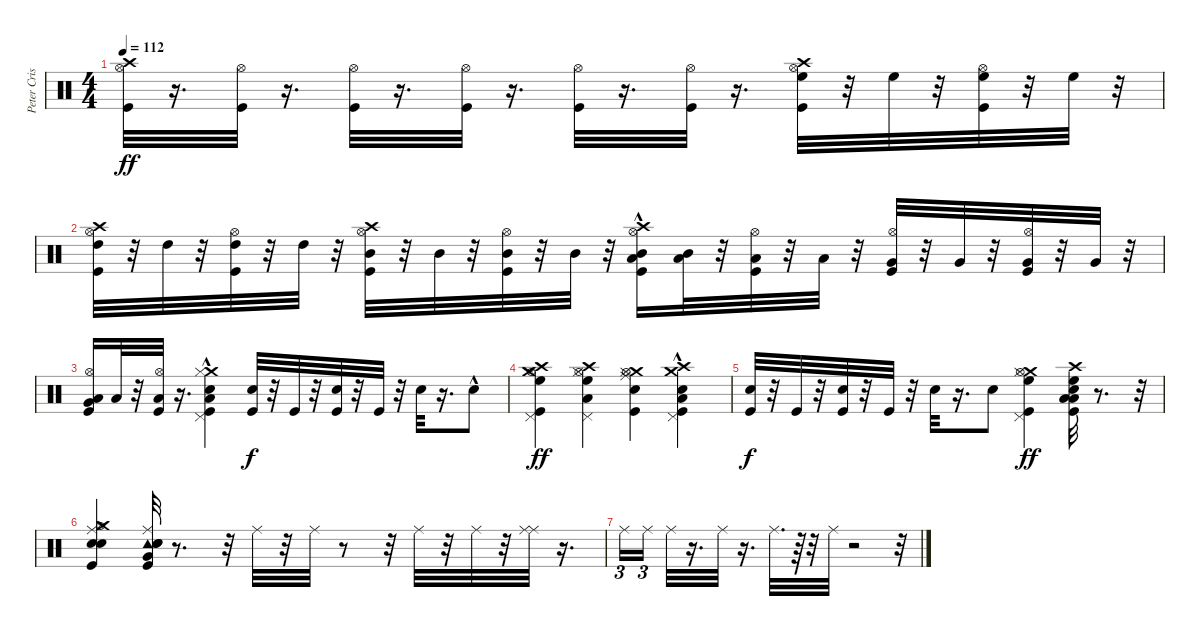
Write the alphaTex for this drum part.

\track ("Peter Criss" "Peter Cris") {instrument percussion}
\staff {score}
\articulation defaults
\ts (4 4)
\tempo 112
\clef neutral
\ks c
("Crash high (hit)" "Kick (hit)" "Hi-Hat (open)").32{dy ff} r.16{d} ("Kick (hit)" "Hi-Hat (open)").32 r.16{d} ("Hi-Hat (open)" "Kick (hit)").32 r.16{d} ("Hi-Hat (open)" "Kick (hit)").32 r.16{d} ("Kick (hit)" "Hi-Hat (open)").32 r.16{d} ("Hi-Hat (open)" "Kick (hit)").32 r.16{d} ("High Floor Tom (hit)" "Hi-Hat (open)" "Kick (hit)" "Crash high (hit)").32 r.32 "High Floor Tom (hit)".32 r.32 ("Kick (hit)" "High Floor Tom (hit)" "Hi-Hat (open)").32 r.32 "High Floor Tom (hit)".32 r.32 |
("Crash high (hit)" "High Tom (hit)" "Kick (hit)" "Hi-Hat (open)").32 r.32 "High Tom (hit)".32 r.32 ("Kick (hit)" "Hi-Hat (open)" "High Tom (hit)").32 r.32 "High Tom (hit)".32 r.32 ("Mid Tom (hit)" "Kick (hit)" "Crash high (hit)" "Hi-Hat (open)").32 r.32 "Mid Tom (hit)".32 r.32 ("Kick (hit)" "Hi-Hat (open)" "Mid Tom (hit)").32 r.32 "Mid Tom (hit)".32 r.32 ("Low Tom (hit)" "Kick (hit)" "Crash high (hit)"{hac} "Hi-Hat (open)" "Mid Tom (hit)").16 ("Mid Tom (hit)" "Low Tom (hit)").32 r.32 ("Hi-Hat (open)" "Low Tom (hit)" "Kick (hit)").32 r.32 "Low Tom (hit)".32 r.32 ("Very Low Tom (hit)" "Hi-Hat (open)" "Kick (hit)").32 r.32 "Very Low Tom (hit)".32 r.32 ("Hi-Hat (open)" "Kick (hit)" "Very Low Tom (hit)").32 r.32 "Very Low Tom (hit)".32 r.32 |
("Very Low Tom (hit)" "Kick (hit)" "Hi-Hat (open)" "Low Floor Tom (hit)").16 "Low Floor Tom (hit)".32 r.32 ("Kick (hit)" "Hi-Hat (open)" "Low Floor Tom (hit)").32 r.16{d} ("Snare (hit) 2" "Crash medium (hit)" "Pedal Hi-Hat (hit)" "Kick (hit)" "Hi-Hat (closed)"{hac} "Low Tom (hit)").4 ("Kick (hit)" "Snare (hit) 2").32{dy f} r.32 "Kick (hit)".32 r.32 ("Kick (hit)" "Snare (hit) 2").32 r.32 "Kick (hit)".32 r.32 "Snare (hit) 2".32 r.16{d} "Snare (hit) 2"{hac}.8 |
("Pedal Hi-Hat (hit)" "Kick (hit)" "High Floor Tom (hit)" "Crash medium (hit)" "Crash high (hit)" "Hi-Hat (open)").4{dy ff} ("Hi-Hat (closed)" "Low Floor Tom (hit)" "High Floor Tom (hit)" "Hi-Hat (open)" "Pedal Hi-Hat (hit)" "Crash high (hit)").4 ("Crash medium (hit)" "Hi-Hat (closed)" "Ride (middle)" "Snare (hit) 2" "Hi-Hat (open)" "Kick (hit)").4 ("Pedal Hi-Hat (hit)" "Low Tom (hit)" "Crash high (hit)"{hac} "Kick (hit)" "Crash medium (hit)" "Snare (hit) 2").4 |
("Snare (hit) 2" "Kick (hit)").32{dy f} r.32 "Kick (hit)".32 r.32 ("Kick (hit)" "Snare (hit) 2").32 r.32 "Kick (hit)".32 r.32 "Snare (hit) 2".32 r.16{d} "Snare (hit) 2".8 ("Pedal Hi-Hat (hit)" "High Floor Tom (hit)" "Crash medium (hit)" "Kick (hit)" "Hi-Hat (open)" "Hi-Hat (closed)").4{dy ff} ("Snare (hit) 2" "Kick (hit)" "High Floor Tom (hit)" "Low Tom (hit)" "Crash high (hit)" "Low Floor Tom (hit)").32 r.8{d} r.32 |
("Ride (middle)" "Hi-Hat (open)" "Kick (hit)" "Crash medium (hit)" "Snare (hit) 2" "Electric Snare (hit)").4 ("Kick (hit)" "Tambourine (hit)" "Electric Snare (hit)" "Snare (hit) 2" "Ride (middle)" "Very Low Tom (hit)").32 r.8{d} r.32 "Ride (middle)".32 r.32 "Ride (middle)".32 r.8 r.32 "Ride (middle)".32 r.32 "Ride (middle)".32 r.32 ("Ride (middle)" "Ride (middle)").32 r.16{d} |
"Ride (middle)".16{tu (3 2)} "Ride (middle)".16{tu (3 2)} "Ride (middle)".32 r.16{d} "Ride (middle)".32 r.16{d} "Ride (middle)".32{d} r.64 r.32 "Ride (middle)".32 r.2 r.32
